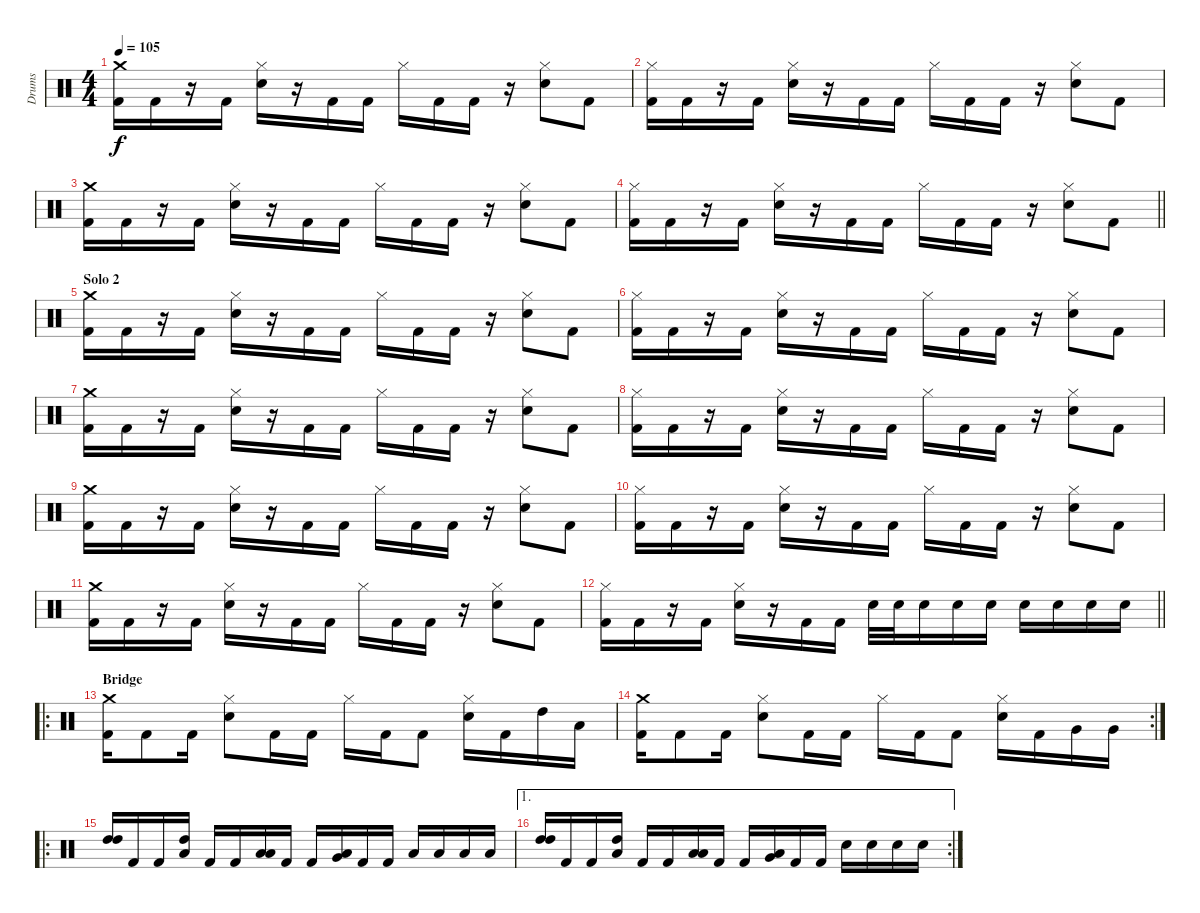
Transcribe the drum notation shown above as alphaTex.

\track ("Drums" "Drums") {instrument percussion}
\staff {score}
\articulation defaults
\ts (4 4)
\tempo 105
\clef neutral
\ks c
("Kick (hit) 2" "Crash medium (hit)").16{dy f} "Kick (hit) 2".16 r.16 "Kick (hit) 2".16 ("Snare (hit) 2" "Hi-Hat (closed)").16 r.16 "Kick (hit) 2".16 "Kick (hit) 2".16 "Hi-Hat (closed)".16 "Kick (hit) 2".16 "Kick (hit) 2".16 r.16 ("Snare (hit) 2" "Hi-Hat (closed)").8 "Kick (hit) 2".8 |
("Kick (hit) 2" "Hi-Hat (closed)").16 "Kick (hit) 2".16 r.16 "Kick (hit) 2".16 ("Snare (hit) 2" "Hi-Hat (closed)").16 r.16 "Kick (hit) 2".16 "Kick (hit) 2".16 "Hi-Hat (closed)".16 "Kick (hit) 2".16 "Kick (hit) 2".16 r.16 ("Snare (hit) 2" "Hi-Hat (closed)").8 "Kick (hit) 2".8 |
("Kick (hit) 2" "Crash medium (hit)").16 "Kick (hit) 2".16 r.16 "Kick (hit) 2".16 ("Snare (hit) 2" "Hi-Hat (closed)").16 r.16 "Kick (hit) 2".16 "Kick (hit) 2".16 "Hi-Hat (closed)".16 "Kick (hit) 2".16 "Kick (hit) 2".16 r.16 ("Snare (hit) 2" "Hi-Hat (closed)").8 "Kick (hit) 2".8 |
\barLineRight lightlight
("Kick (hit) 2" "Hi-Hat (closed)").16 "Kick (hit) 2".16 r.16 "Kick (hit) 2".16 ("Snare (hit) 2" "Hi-Hat (closed)").16 r.16 "Kick (hit) 2".16 "Kick (hit) 2".16 "Hi-Hat (closed)".16 "Kick (hit) 2".16 "Kick (hit) 2".16 r.16 ("Snare (hit) 2" "Hi-Hat (closed)").8 "Kick (hit) 2".8 |
\section ("" "Solo 2")
("Kick (hit) 2" "Crash medium (hit)").16 "Kick (hit) 2".16 r.16 "Kick (hit) 2".16 ("Snare (hit) 2" "Hi-Hat (closed)").16 r.16 "Kick (hit) 2".16 "Kick (hit) 2".16 "Hi-Hat (closed)".16 "Kick (hit) 2".16 "Kick (hit) 2".16 r.16 ("Snare (hit) 2" "Hi-Hat (closed)").8 "Kick (hit) 2".8 |
("Kick (hit) 2" "Hi-Hat (closed)").16 "Kick (hit) 2".16 r.16 "Kick (hit) 2".16 ("Snare (hit) 2" "Hi-Hat (closed)").16 r.16 "Kick (hit) 2".16 "Kick (hit) 2".16 "Hi-Hat (closed)".16 "Kick (hit) 2".16 "Kick (hit) 2".16 r.16 ("Snare (hit) 2" "Hi-Hat (closed)").8 "Kick (hit) 2".8 |
("Kick (hit) 2" "Crash medium (hit)").16 "Kick (hit) 2".16 r.16 "Kick (hit) 2".16 ("Snare (hit) 2" "Hi-Hat (closed)").16 r.16 "Kick (hit) 2".16 "Kick (hit) 2".16 "Hi-Hat (closed)".16 "Kick (hit) 2".16 "Kick (hit) 2".16 r.16 ("Snare (hit) 2" "Hi-Hat (closed)").8 "Kick (hit) 2".8 |
("Kick (hit) 2" "Hi-Hat (closed)").16 "Kick (hit) 2".16 r.16 "Kick (hit) 2".16 ("Snare (hit) 2" "Hi-Hat (closed)").16 r.16 "Kick (hit) 2".16 "Kick (hit) 2".16 "Hi-Hat (closed)".16 "Kick (hit) 2".16 "Kick (hit) 2".16 r.16 ("Snare (hit) 2" "Hi-Hat (closed)").8 "Kick (hit) 2".8 |
("Kick (hit) 2" "Crash medium (hit)").16 "Kick (hit) 2".16 r.16 "Kick (hit) 2".16 ("Snare (hit) 2" "Hi-Hat (closed)").16 r.16 "Kick (hit) 2".16 "Kick (hit) 2".16 "Hi-Hat (closed)".16 "Kick (hit) 2".16 "Kick (hit) 2".16 r.16 ("Snare (hit) 2" "Hi-Hat (closed)").8 "Kick (hit) 2".8 |
("Kick (hit) 2" "Hi-Hat (closed)").16 "Kick (hit) 2".16 r.16 "Kick (hit) 2".16 ("Snare (hit) 2" "Hi-Hat (closed)").16 r.16 "Kick (hit) 2".16 "Kick (hit) 2".16 "Hi-Hat (closed)".16 "Kick (hit) 2".16 "Kick (hit) 2".16 r.16 ("Snare (hit) 2" "Hi-Hat (closed)").8 "Kick (hit) 2".8 |
("Kick (hit) 2" "Crash medium (hit)").16 "Kick (hit) 2".16 r.16 "Kick (hit) 2".16 ("Snare (hit) 2" "Hi-Hat (closed)").16 r.16 "Kick (hit) 2".16 "Kick (hit) 2".16 "Hi-Hat (closed)".16 "Kick (hit) 2".16 "Kick (hit) 2".16 r.16 ("Snare (hit) 2" "Hi-Hat (closed)").8 "Kick (hit) 2".8 |
\barLineRight lightlight
("Kick (hit) 2" "Hi-Hat (closed)").16 "Kick (hit) 2".16 r.16 "Kick (hit) 2".16 ("Snare (hit) 2" "Hi-Hat (closed)").16 r.16 "Kick (hit) 2".16 "Kick (hit) 2".16 "Snare (hit) 2".32 "Snare (hit) 2".32 "Snare (hit) 2".16 "Snare (hit) 2".16 "Snare (hit) 2".16 "Snare (hit) 2".16 "Snare (hit) 2".16 "Snare (hit) 2".16 "Snare (hit) 2".16 |
\ro
\section ("" "Bridge")
("Kick (hit) 2" "Crash medium (hit)").16 "Kick (hit) 2".8 "Kick (hit) 2".16 ("Snare (hit) 2" "Hi-Hat (closed)").8 "Kick (hit) 2".16 "Kick (hit) 2".16 "Hi-Hat (closed)".16 "Kick (hit) 2".16 "Kick (hit) 2".8 ("Snare (hit) 2" "Hi-Hat (closed)").16 "Kick (hit) 2".16 "High Tom (hit)".16 "Low Tom (hit)".16 |
\rc 2
("Kick (hit) 2" "Crash medium (hit)").16 "Kick (hit) 2".8 "Kick (hit) 2".16 ("Snare (hit) 2" "Hi-Hat (closed)").8 "Kick (hit) 2".16 "Kick (hit) 2".16 "Hi-Hat (closed)".16 "Kick (hit) 2".16 "Kick (hit) 2".8 ("Snare (hit) 2" "Hi-Hat (closed)").16 "Kick (hit) 2".16 "Very Low Tom (hit)".16 "Very Low Tom (hit)".16 |
\ro
("High Tom (hit)" "High Tom (hit)").16 "Kick (hit) 2".16 "Kick (hit) 2".16 ("High Tom (hit)" "Low Tom (hit)").16 "Kick (hit) 2".16 "Kick (hit) 2".16 ("Low Tom (hit)" "Low Tom (hit)").16 "Kick (hit) 2".16 "Kick (hit) 2".16 ("Low Tom (hit)" "Very Low Tom (hit)").16 "Kick (hit) 2".16 "Kick (hit) 2".16 "Low Tom (hit)".16 "Low Tom (hit)".16 "Low Tom (hit)".16 "Low Tom (hit)".16 |
\ae 1
\rc 2
("High Tom (hit)" "High Tom (hit)").16 "Kick (hit) 2".16 "Kick (hit) 2".16 ("High Tom (hit)" "Low Tom (hit)").16 "Kick (hit) 2".16 "Kick (hit) 2".16 ("Low Tom (hit)" "Low Tom (hit)").16 "Kick (hit) 2".16 "Kick (hit) 2".16 ("Low Tom (hit)" "Very Low Tom (hit)").16 "Kick (hit) 2".16 "Kick (hit) 2".16 "Snare (hit) 2".16 "Snare (hit) 2".16 "Snare (hit) 2".16 "Snare (hit) 2".16
